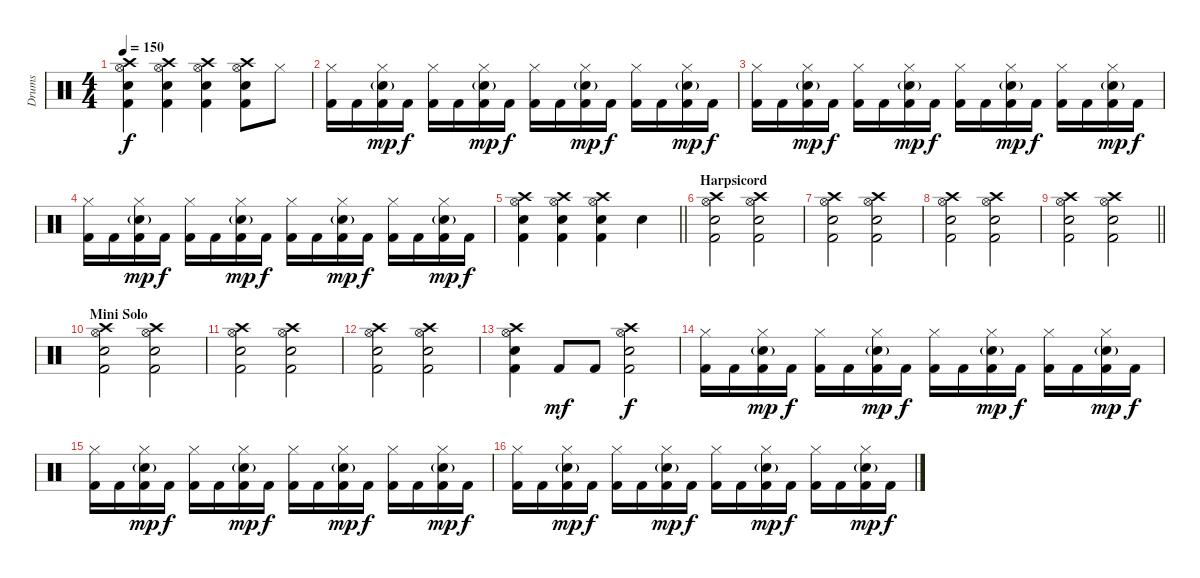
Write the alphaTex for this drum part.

\track ("Drums" "Drums") {instrument percussion}
\staff {score}
\articulation defaults
\ts (4 4)
\tempo 150
\clef neutral
\ks c
("Crash high (hit)" "Hi-Hat (open)" "Electric Snare (hit)" "Kick (hit) 2").4{dy f} ("Crash high (hit)" "Hi-Hat (open)" "Electric Snare (hit)" "Kick (hit) 2").4 ("Crash high (hit)" "Hi-Hat (open)" "Electric Snare (hit)" "Kick (hit) 2").4 ("Crash high (hit)" "Hi-Hat (open)" "Electric Snare (hit)" "Kick (hit) 2").8 "Hi-Hat (closed)".8 |
("Hi-Hat (closed)" "Kick (hit) 2").16 "Kick (hit) 2".16 ("Hi-Hat (closed)" "Electric Snare (hit)"{g} "Kick (hit) 2").16{dy mp} "Kick (hit) 2".16{dy f} ("Hi-Hat (closed)" "Kick (hit) 2").16 "Kick (hit) 2".16 ("Hi-Hat (closed)" "Electric Snare (hit)"{g} "Kick (hit) 2").16{dy mp} "Kick (hit) 2".16{dy f} ("Hi-Hat (closed)" "Kick (hit) 2").16 "Kick (hit) 2".16 ("Hi-Hat (closed)" "Electric Snare (hit)"{g} "Kick (hit) 2").16{dy mp} "Kick (hit) 2".16{dy f} ("Hi-Hat (closed)" "Kick (hit) 2").16 "Kick (hit) 2".16 ("Hi-Hat (closed)" "Electric Snare (hit)"{g} "Kick (hit) 2").16{dy mp} "Kick (hit) 2".16{dy f} |
("Hi-Hat (closed)" "Kick (hit) 2").16 "Kick (hit) 2".16 ("Hi-Hat (closed)" "Electric Snare (hit)"{g} "Kick (hit) 2").16{dy mp} "Kick (hit) 2".16{dy f} ("Hi-Hat (closed)" "Kick (hit) 2").16 "Kick (hit) 2".16 ("Hi-Hat (closed)" "Electric Snare (hit)"{g} "Kick (hit) 2").16{dy mp} "Kick (hit) 2".16{dy f} ("Hi-Hat (closed)" "Kick (hit) 2").16 "Kick (hit) 2".16 ("Hi-Hat (closed)" "Electric Snare (hit)"{g} "Kick (hit) 2").16{dy mp} "Kick (hit) 2".16{dy f} ("Hi-Hat (closed)" "Kick (hit) 2").16 "Kick (hit) 2".16 ("Hi-Hat (closed)" "Electric Snare (hit)"{g} "Kick (hit) 2").16{dy mp} "Kick (hit) 2".16{dy f} |
("Hi-Hat (closed)" "Kick (hit) 2").16 "Kick (hit) 2".16 ("Hi-Hat (closed)" "Electric Snare (hit)"{g} "Kick (hit) 2").16{dy mp} "Kick (hit) 2".16{dy f} ("Hi-Hat (closed)" "Kick (hit) 2").16 "Kick (hit) 2".16 ("Hi-Hat (closed)" "Electric Snare (hit)"{g} "Kick (hit) 2").16{dy mp} "Kick (hit) 2".16{dy f} ("Hi-Hat (closed)" "Kick (hit) 2").16 "Kick (hit) 2".16 ("Hi-Hat (closed)" "Electric Snare (hit)"{g} "Kick (hit) 2").16{dy mp} "Kick (hit) 2".16{dy f} ("Hi-Hat (closed)" "Kick (hit) 2").16 "Kick (hit) 2".16 ("Hi-Hat (closed)" "Electric Snare (hit)"{g} "Kick (hit) 2").16{dy mp} "Kick (hit) 2".16{dy f} |
\barLineRight lightlight
("Crash high (hit)" "Hi-Hat (open)" "Electric Snare (hit)" "Kick (hit) 2").4 ("Crash high (hit)" "Hi-Hat (open)" "Electric Snare (hit)" "Kick (hit) 2").4 ("Crash high (hit)" "Hi-Hat (open)" "Electric Snare (hit)" "Kick (hit) 2").4 "Electric Snare (hit)".4 |
\section ("" "Harpsicord")
("Crash high (hit)" "Hi-Hat (open)" "Electric Snare (hit)" "Kick (hit) 2").2 ("Crash high (hit)" "Hi-Hat (open)" "Electric Snare (hit)" "Kick (hit) 2").2 |
("Crash high (hit)" "Hi-Hat (open)" "Electric Snare (hit)" "Kick (hit) 2").2 ("Crash high (hit)" "Hi-Hat (open)" "Electric Snare (hit)" "Kick (hit) 2").2 |
("Crash high (hit)" "Hi-Hat (open)" "Electric Snare (hit)" "Kick (hit) 2").2 ("Crash high (hit)" "Hi-Hat (open)" "Electric Snare (hit)" "Kick (hit) 2").2 |
\barLineRight lightlight
("Crash high (hit)" "Hi-Hat (open)" "Electric Snare (hit)" "Kick (hit) 2").2 ("Crash high (hit)" "Hi-Hat (open)" "Electric Snare (hit)" "Kick (hit) 2").2 |
\section ("" "Mini Solo")
("Crash high (hit)" "Hi-Hat (open)" "Electric Snare (hit)" "Kick (hit) 2").2 ("Crash high (hit)" "Hi-Hat (open)" "Electric Snare (hit)" "Kick (hit) 2").2 |
("Crash high (hit)" "Hi-Hat (open)" "Electric Snare (hit)" "Kick (hit) 2").2 ("Crash high (hit)" "Hi-Hat (open)" "Electric Snare (hit)" "Kick (hit) 2").2 |
("Crash high (hit)" "Hi-Hat (open)" "Electric Snare (hit)" "Kick (hit) 2").2 ("Crash high (hit)" "Hi-Hat (open)" "Electric Snare (hit)" "Kick (hit) 2").2 |
("Crash high (hit)" "Hi-Hat (open)" "Electric Snare (hit)" "Kick (hit) 2").4 "Kick (hit) 2".8{dy mf} "Kick (hit) 2".8 ("Crash high (hit)" "Hi-Hat (open)" "Electric Snare (hit)" "Kick (hit) 2").2{dy f} |
("Hi-Hat (closed)" "Kick (hit) 2").16 "Kick (hit) 2".16 ("Hi-Hat (closed)" "Electric Snare (hit)"{g} "Kick (hit) 2").16{dy mp} "Kick (hit) 2".16{dy f} ("Hi-Hat (closed)" "Kick (hit) 2").16 "Kick (hit) 2".16 ("Hi-Hat (closed)" "Electric Snare (hit)"{g} "Kick (hit) 2").16{dy mp} "Kick (hit) 2".16{dy f} ("Hi-Hat (closed)" "Kick (hit) 2").16 "Kick (hit) 2".16 ("Hi-Hat (closed)" "Electric Snare (hit)"{g} "Kick (hit) 2").16{dy mp} "Kick (hit) 2".16{dy f} ("Hi-Hat (closed)" "Kick (hit) 2").16 "Kick (hit) 2".16 ("Hi-Hat (closed)" "Electric Snare (hit)"{g} "Kick (hit) 2").16{dy mp} "Kick (hit) 2".16{dy f} |
("Hi-Hat (closed)" "Kick (hit) 2").16 "Kick (hit) 2".16 ("Hi-Hat (closed)" "Electric Snare (hit)"{g} "Kick (hit) 2").16{dy mp} "Kick (hit) 2".16{dy f} ("Hi-Hat (closed)" "Kick (hit) 2").16 "Kick (hit) 2".16 ("Hi-Hat (closed)" "Electric Snare (hit)"{g} "Kick (hit) 2").16{dy mp} "Kick (hit) 2".16{dy f} ("Hi-Hat (closed)" "Kick (hit) 2").16 "Kick (hit) 2".16 ("Hi-Hat (closed)" "Electric Snare (hit)"{g} "Kick (hit) 2").16{dy mp} "Kick (hit) 2".16{dy f} ("Hi-Hat (closed)" "Kick (hit) 2").16 "Kick (hit) 2".16 ("Hi-Hat (closed)" "Electric Snare (hit)"{g} "Kick (hit) 2").16{dy mp} "Kick (hit) 2".16{dy f} |
("Hi-Hat (closed)" "Kick (hit) 2").16 "Kick (hit) 2".16 ("Hi-Hat (closed)" "Electric Snare (hit)"{g} "Kick (hit) 2").16{dy mp} "Kick (hit) 2".16{dy f} ("Hi-Hat (closed)" "Kick (hit) 2").16 "Kick (hit) 2".16 ("Hi-Hat (closed)" "Electric Snare (hit)"{g} "Kick (hit) 2").16{dy mp} "Kick (hit) 2".16{dy f} ("Hi-Hat (closed)" "Kick (hit) 2").16 "Kick (hit) 2".16 ("Hi-Hat (closed)" "Electric Snare (hit)"{g} "Kick (hit) 2").16{dy mp} "Kick (hit) 2".16{dy f} ("Hi-Hat (closed)" "Kick (hit) 2").16 "Kick (hit) 2".16 ("Hi-Hat (closed)" "Electric Snare (hit)"{g} "Kick (hit) 2").16{dy mp} "Kick (hit) 2".16{dy f}
